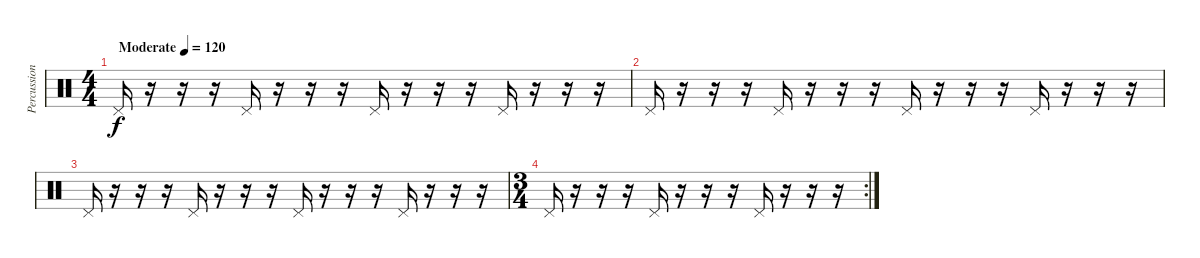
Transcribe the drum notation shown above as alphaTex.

\track ("Percussion" "Percussion") {instrument percussion}
\staff {score}
\articulation defaults
\ts (4 4)
\tempo (120 "Moderate")
\clef neutral
\ks c "Pedal Hi-Hat (hit)".16{dy f}
r.16 r.16 r.16 "Pedal Hi-Hat (hit)".16 r.16 r.16 r.16 "Pedal Hi-Hat (hit)".16 r.16 r.16 r.16 "Pedal Hi-Hat (hit)".16 r.16 r.16 r.16 |
"Pedal Hi-Hat (hit)".16 r.16 r.16 r.16 "Pedal Hi-Hat (hit)".16 r.16 r.16 r.16 "Pedal Hi-Hat (hit)".16 r.16 r.16 r.16 "Pedal Hi-Hat (hit)".16 r.16 r.16 r.16 |
"Pedal Hi-Hat (hit)".16 r.16 r.16 r.16 "Pedal Hi-Hat (hit)".16 r.16 r.16 r.16 "Pedal Hi-Hat (hit)".16 r.16 r.16 r.16 "Pedal Hi-Hat (hit)".16 r.16 r.16 r.16 |
\rc 2
\ts (3 4)
"Pedal Hi-Hat (hit)".16 r.16 r.16 r.16 "Pedal Hi-Hat (hit)".16 r.16 r.16 r.16 "Pedal Hi-Hat (hit)".16 r.16 r.16 r.16
